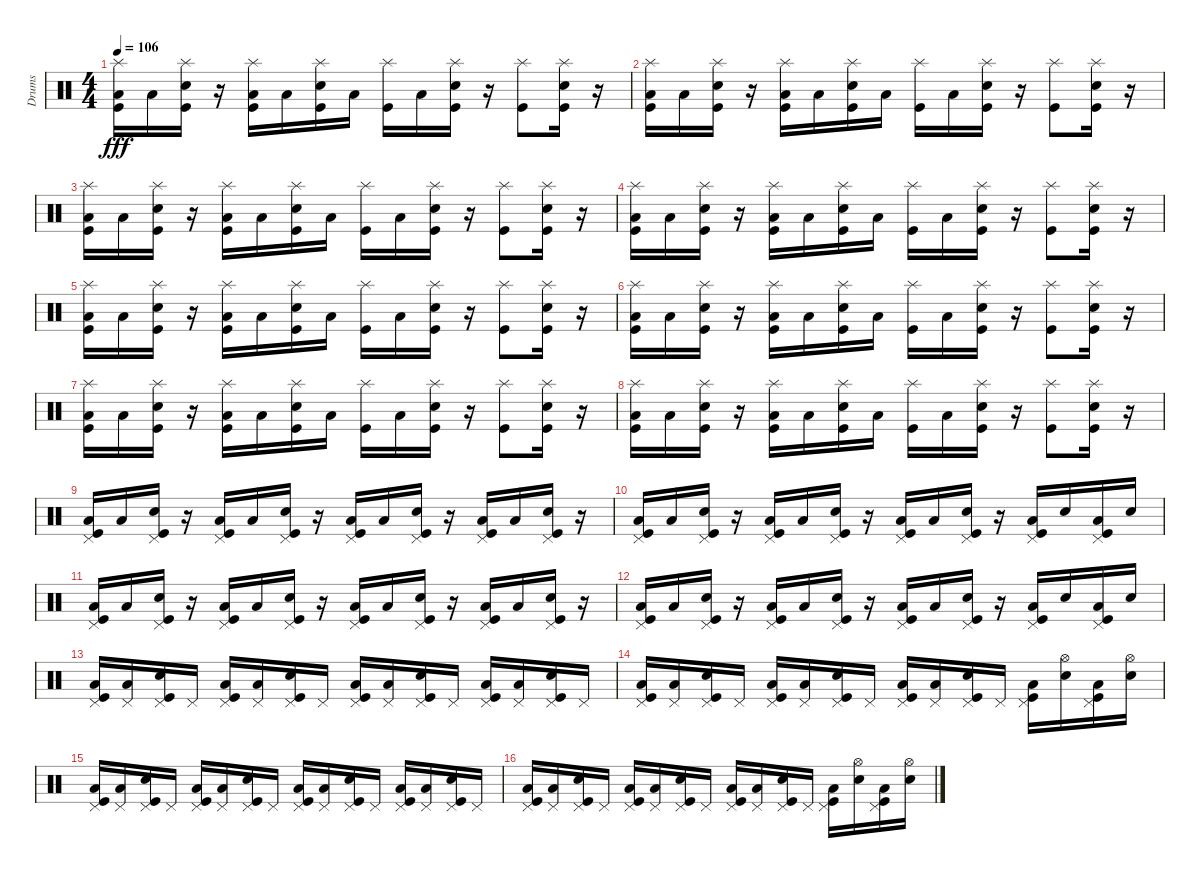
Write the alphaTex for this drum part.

\track ("Drums" "Drums") {instrument percussion}
\staff {score}
\articulation defaults
\ts (4 4)
\tempo 106
\clef neutral
\ks c
("Splash (hit)" "Low Floor Tom (hit)" "Kick (hit)").16{dy fff} "Low Floor Tom (hit)".16 ("Splash (hit)" "Snare (hit) 2" "Kick (hit)").16 r.16 ("Splash (hit)" "Low Floor Tom (hit)" "Kick (hit)").16 "Low Floor Tom (hit)".16 ("Splash (hit)" "Snare (hit) 2" "Kick (hit)").16 "Low Floor Tom (hit)".16 ("Splash (hit)" "Kick (hit)").16 "Low Floor Tom (hit)".16 ("Splash (hit)" "Snare (hit) 2" "Kick (hit)").16 r.16 ("Splash (hit)" "Kick (hit)").8 ("Splash (hit)" "Snare (hit) 2" "Kick (hit)").16 r.16 |
("Splash (hit)" "Low Floor Tom (hit)" "Kick (hit)").16 "Low Floor Tom (hit)".16 ("Splash (hit)" "Snare (hit) 2" "Kick (hit)").16 r.16 ("Splash (hit)" "Low Floor Tom (hit)" "Kick (hit)").16 "Low Floor Tom (hit)".16 ("Splash (hit)" "Snare (hit) 2" "Kick (hit)").16 "Low Floor Tom (hit)".16 ("Splash (hit)" "Kick (hit)").16 "Low Floor Tom (hit)".16 ("Splash (hit)" "Snare (hit) 2" "Kick (hit)").16 r.16 ("Splash (hit)" "Kick (hit)").8 ("Splash (hit)" "Snare (hit) 2" "Kick (hit)").16 r.16 |
("Splash (hit)" "Low Floor Tom (hit)" "Kick (hit)").16 "Low Floor Tom (hit)".16 ("Splash (hit)" "Snare (hit) 2" "Kick (hit)").16 r.16 ("Splash (hit)" "Low Floor Tom (hit)" "Kick (hit)").16 "Low Floor Tom (hit)".16 ("Splash (hit)" "Snare (hit) 2" "Kick (hit)").16 "Low Floor Tom (hit)".16 ("Splash (hit)" "Kick (hit)").16 "Low Floor Tom (hit)".16 ("Splash (hit)" "Snare (hit) 2" "Kick (hit)").16 r.16 ("Splash (hit)" "Kick (hit)").8 ("Splash (hit)" "Snare (hit) 2" "Kick (hit)").16 r.16 |
("Splash (hit)" "Low Floor Tom (hit)" "Kick (hit)").16 "Low Floor Tom (hit)".16 ("Splash (hit)" "Snare (hit) 2" "Kick (hit)").16 r.16 ("Splash (hit)" "Low Floor Tom (hit)" "Kick (hit)").16 "Low Floor Tom (hit)".16 ("Splash (hit)" "Snare (hit) 2" "Kick (hit)").16 "Low Floor Tom (hit)".16 ("Splash (hit)" "Kick (hit)").16 "Low Floor Tom (hit)".16 ("Splash (hit)" "Snare (hit) 2" "Kick (hit)").16 r.16 ("Splash (hit)" "Kick (hit)").8 ("Splash (hit)" "Snare (hit) 2" "Kick (hit)").16 r.16 |
("Splash (hit)" "Low Floor Tom (hit)" "Kick (hit)").16 "Low Floor Tom (hit)".16 ("Splash (hit)" "Snare (hit) 2" "Kick (hit)").16 r.16 ("Splash (hit)" "Low Floor Tom (hit)" "Kick (hit)").16 "Low Floor Tom (hit)".16 ("Splash (hit)" "Snare (hit) 2" "Kick (hit)").16 "Low Floor Tom (hit)".16 ("Splash (hit)" "Kick (hit)").16 "Low Floor Tom (hit)".16 ("Splash (hit)" "Snare (hit) 2" "Kick (hit)").16 r.16 ("Splash (hit)" "Kick (hit)").8 ("Splash (hit)" "Snare (hit) 2" "Kick (hit)").16 r.16 |
("Splash (hit)" "Low Floor Tom (hit)" "Kick (hit)").16 "Low Floor Tom (hit)".16 ("Splash (hit)" "Snare (hit) 2" "Kick (hit)").16 r.16 ("Splash (hit)" "Low Floor Tom (hit)" "Kick (hit)").16 "Low Floor Tom (hit)".16 ("Splash (hit)" "Snare (hit) 2" "Kick (hit)").16 "Low Floor Tom (hit)".16 ("Splash (hit)" "Kick (hit)").16 "Low Floor Tom (hit)".16 ("Splash (hit)" "Snare (hit) 2" "Kick (hit)").16 r.16 ("Splash (hit)" "Kick (hit)").8 ("Splash (hit)" "Snare (hit) 2" "Kick (hit)").16 r.16 |
("Splash (hit)" "Low Floor Tom (hit)" "Kick (hit)").16 "Low Floor Tom (hit)".16 ("Splash (hit)" "Snare (hit) 2" "Kick (hit)").16 r.16 ("Splash (hit)" "Low Floor Tom (hit)" "Kick (hit)").16 "Low Floor Tom (hit)".16 ("Splash (hit)" "Snare (hit) 2" "Kick (hit)").16 "Low Floor Tom (hit)".16 ("Splash (hit)" "Kick (hit)").16 "Low Floor Tom (hit)".16 ("Splash (hit)" "Snare (hit) 2" "Kick (hit)").16 r.16 ("Splash (hit)" "Kick (hit)").8 ("Splash (hit)" "Snare (hit) 2" "Kick (hit)").16 r.16 |
("Splash (hit)" "Low Floor Tom (hit)" "Kick (hit)").16 "Low Floor Tom (hit)".16 ("Splash (hit)" "Snare (hit) 2" "Kick (hit)").16 r.16 ("Splash (hit)" "Low Floor Tom (hit)" "Kick (hit)").16 "Low Floor Tom (hit)".16 ("Splash (hit)" "Snare (hit) 2" "Kick (hit)").16 "Low Floor Tom (hit)".16 ("Splash (hit)" "Kick (hit)").16 "Low Floor Tom (hit)".16 ("Splash (hit)" "Snare (hit) 2" "Kick (hit)").16 r.16 ("Splash (hit)" "Kick (hit)").8 ("Splash (hit)" "Snare (hit) 2" "Kick (hit)").16 r.16 |
("Pedal Hi-Hat (hit)" "Low Floor Tom (hit)" "Kick (hit)").16 "Low Floor Tom (hit)".16 ("Pedal Hi-Hat (hit)" "Snare (hit) 2" "Kick (hit)").16 r.16 ("Pedal Hi-Hat (hit)" "Low Floor Tom (hit)" "Kick (hit)").16 "Low Floor Tom (hit)".16 ("Pedal Hi-Hat (hit)" "Snare (hit) 2" "Kick (hit)").16 r.16 ("Pedal Hi-Hat (hit)" "Low Floor Tom (hit)" "Kick (hit)").16 "Low Floor Tom (hit)".16 ("Pedal Hi-Hat (hit)" "Snare (hit) 2" "Kick (hit)").16 r.16 ("Pedal Hi-Hat (hit)" "Low Floor Tom (hit)" "Kick (hit)").16 "Low Floor Tom (hit)".16 ("Pedal Hi-Hat (hit)" "Snare (hit) 2" "Kick (hit)").16 r.16 |
("Pedal Hi-Hat (hit)" "Low Floor Tom (hit)" "Kick (hit)").16 "Low Floor Tom (hit)".16 ("Pedal Hi-Hat (hit)" "Snare (hit) 2" "Kick (hit)").16 r.16 ("Pedal Hi-Hat (hit)" "Low Floor Tom (hit)" "Kick (hit)").16 "Low Floor Tom (hit)".16 ("Pedal Hi-Hat (hit)" "Snare (hit) 2" "Kick (hit)").16 r.16 ("Pedal Hi-Hat (hit)" "Low Floor Tom (hit)" "Kick (hit)").16 "Low Floor Tom (hit)".16 ("Pedal Hi-Hat (hit)" "Snare (hit) 2" "Kick (hit)").16 r.16 ("Pedal Hi-Hat (hit)" "Low Floor Tom (hit)" "Kick (hit)").16 "Snare (hit) 2".16 ("Pedal Hi-Hat (hit)" "Low Floor Tom (hit)" "Kick (hit)").16 "Snare (hit) 2".16 |
("Pedal Hi-Hat (hit)" "Low Floor Tom (hit)" "Kick (hit)").16 "Low Floor Tom (hit)".16 ("Pedal Hi-Hat (hit)" "Snare (hit) 2" "Kick (hit)").16 r.16 ("Pedal Hi-Hat (hit)" "Low Floor Tom (hit)" "Kick (hit)").16 "Low Floor Tom (hit)".16 ("Pedal Hi-Hat (hit)" "Snare (hit) 2" "Kick (hit)").16 r.16 ("Pedal Hi-Hat (hit)" "Low Floor Tom (hit)" "Kick (hit)").16 "Low Floor Tom (hit)".16 ("Pedal Hi-Hat (hit)" "Snare (hit) 2" "Kick (hit)").16 r.16 ("Pedal Hi-Hat (hit)" "Low Floor Tom (hit)" "Kick (hit)").16 "Low Floor Tom (hit)".16 ("Pedal Hi-Hat (hit)" "Snare (hit) 2" "Kick (hit)").16 r.16 |
("Pedal Hi-Hat (hit)" "Low Floor Tom (hit)" "Kick (hit)").16 "Low Floor Tom (hit)".16 ("Pedal Hi-Hat (hit)" "Snare (hit) 2" "Kick (hit)").16 r.16 ("Pedal Hi-Hat (hit)" "Low Floor Tom (hit)" "Kick (hit)").16 "Low Floor Tom (hit)".16 ("Pedal Hi-Hat (hit)" "Snare (hit) 2" "Kick (hit)").16 r.16 ("Pedal Hi-Hat (hit)" "Low Floor Tom (hit)" "Kick (hit)").16 "Low Floor Tom (hit)".16 ("Pedal Hi-Hat (hit)" "Snare (hit) 2" "Kick (hit)").16 r.16 ("Pedal Hi-Hat (hit)" "Low Floor Tom (hit)" "Kick (hit)").16 "Snare (hit) 2".16 ("Pedal Hi-Hat (hit)" "Low Floor Tom (hit)" "Kick (hit)").16 "Snare (hit) 2".16 |
("Pedal Hi-Hat (hit)" "Low Floor Tom (hit)" "Kick (hit)").16 ("Pedal Hi-Hat (hit)" "Low Floor Tom (hit)").16 ("Pedal Hi-Hat (hit)" "Snare (hit) 2" "Kick (hit)").16 "Pedal Hi-Hat (hit)".16 ("Pedal Hi-Hat (hit)" "Low Floor Tom (hit)" "Kick (hit)").16 ("Pedal Hi-Hat (hit)" "Low Floor Tom (hit)").16 ("Pedal Hi-Hat (hit)" "Snare (hit) 2" "Kick (hit)").16 "Pedal Hi-Hat (hit)".16 ("Pedal Hi-Hat (hit)" "Low Floor Tom (hit)" "Kick (hit)").16 ("Pedal Hi-Hat (hit)" "Low Floor Tom (hit)").16 ("Pedal Hi-Hat (hit)" "Snare (hit) 2" "Kick (hit)").16 "Pedal Hi-Hat (hit)".16 ("Pedal Hi-Hat (hit)" "Low Floor Tom (hit)" "Kick (hit)").16 ("Pedal Hi-Hat (hit)" "Low Floor Tom (hit)").16 ("Pedal Hi-Hat (hit)" "Snare (hit) 2" "Kick (hit)").16 "Pedal Hi-Hat (hit)".16 |
("Pedal Hi-Hat (hit)" "Low Floor Tom (hit)" "Kick (hit)").16 ("Pedal Hi-Hat (hit)" "Low Floor Tom (hit)").16 ("Pedal Hi-Hat (hit)" "Snare (hit) 2" "Kick (hit)").16 "Pedal Hi-Hat (hit)".16 ("Pedal Hi-Hat (hit)" "Low Floor Tom (hit)" "Kick (hit)").16 ("Pedal Hi-Hat (hit)" "Low Floor Tom (hit)").16 ("Pedal Hi-Hat (hit)" "Snare (hit) 2" "Kick (hit)").16 "Pedal Hi-Hat (hit)".16 ("Pedal Hi-Hat (hit)" "Low Floor Tom (hit)" "Kick (hit)").16 ("Pedal Hi-Hat (hit)" "Low Floor Tom (hit)").16 ("Pedal Hi-Hat (hit)" "Snare (hit) 2" "Kick (hit)").16 "Pedal Hi-Hat (hit)".16 ("Pedal Hi-Hat (hit)" "Low Floor Tom (hit)" "Kick (hit)").16 ("Hi-Hat (open)" "Snare (hit) 2").16 ("Pedal Hi-Hat (hit)" "Low Floor Tom (hit)" "Kick (hit)").16 ("Hi-Hat (open)" "Snare (hit) 2").16 |
("Pedal Hi-Hat (hit)" "Low Floor Tom (hit)" "Kick (hit)").16 ("Pedal Hi-Hat (hit)" "Low Floor Tom (hit)").16 ("Pedal Hi-Hat (hit)" "Snare (hit) 2" "Kick (hit)").16 "Pedal Hi-Hat (hit)".16 ("Pedal Hi-Hat (hit)" "Low Floor Tom (hit)" "Kick (hit)").16 ("Pedal Hi-Hat (hit)" "Low Floor Tom (hit)").16 ("Pedal Hi-Hat (hit)" "Snare (hit) 2" "Kick (hit)").16 "Pedal Hi-Hat (hit)".16 ("Pedal Hi-Hat (hit)" "Low Floor Tom (hit)" "Kick (hit)").16 ("Pedal Hi-Hat (hit)" "Low Floor Tom (hit)").16 ("Pedal Hi-Hat (hit)" "Snare (hit) 2" "Kick (hit)").16 "Pedal Hi-Hat (hit)".16 ("Pedal Hi-Hat (hit)" "Low Floor Tom (hit)" "Kick (hit)").16 ("Pedal Hi-Hat (hit)" "Low Floor Tom (hit)").16 ("Pedal Hi-Hat (hit)" "Snare (hit) 2" "Kick (hit)").16 "Pedal Hi-Hat (hit)".16 |
("Pedal Hi-Hat (hit)" "Low Floor Tom (hit)" "Kick (hit)").16 ("Pedal Hi-Hat (hit)" "Low Floor Tom (hit)").16 ("Pedal Hi-Hat (hit)" "Snare (hit) 2" "Kick (hit)").16 "Pedal Hi-Hat (hit)".16 ("Pedal Hi-Hat (hit)" "Low Floor Tom (hit)" "Kick (hit)").16 ("Pedal Hi-Hat (hit)" "Low Floor Tom (hit)").16 ("Pedal Hi-Hat (hit)" "Snare (hit) 2" "Kick (hit)").16 "Pedal Hi-Hat (hit)".16 ("Pedal Hi-Hat (hit)" "Low Floor Tom (hit)" "Kick (hit)").16 ("Pedal Hi-Hat (hit)" "Low Floor Tom (hit)").16 ("Pedal Hi-Hat (hit)" "Snare (hit) 2" "Kick (hit)").16 "Pedal Hi-Hat (hit)".16 ("Pedal Hi-Hat (hit)" "Low Floor Tom (hit)" "Kick (hit)").16 ("Hi-Hat (open)" "Snare (hit) 2").16 ("Pedal Hi-Hat (hit)" "Low Floor Tom (hit)" "Kick (hit)").16 ("Hi-Hat (open)" "Snare (hit) 2").16
